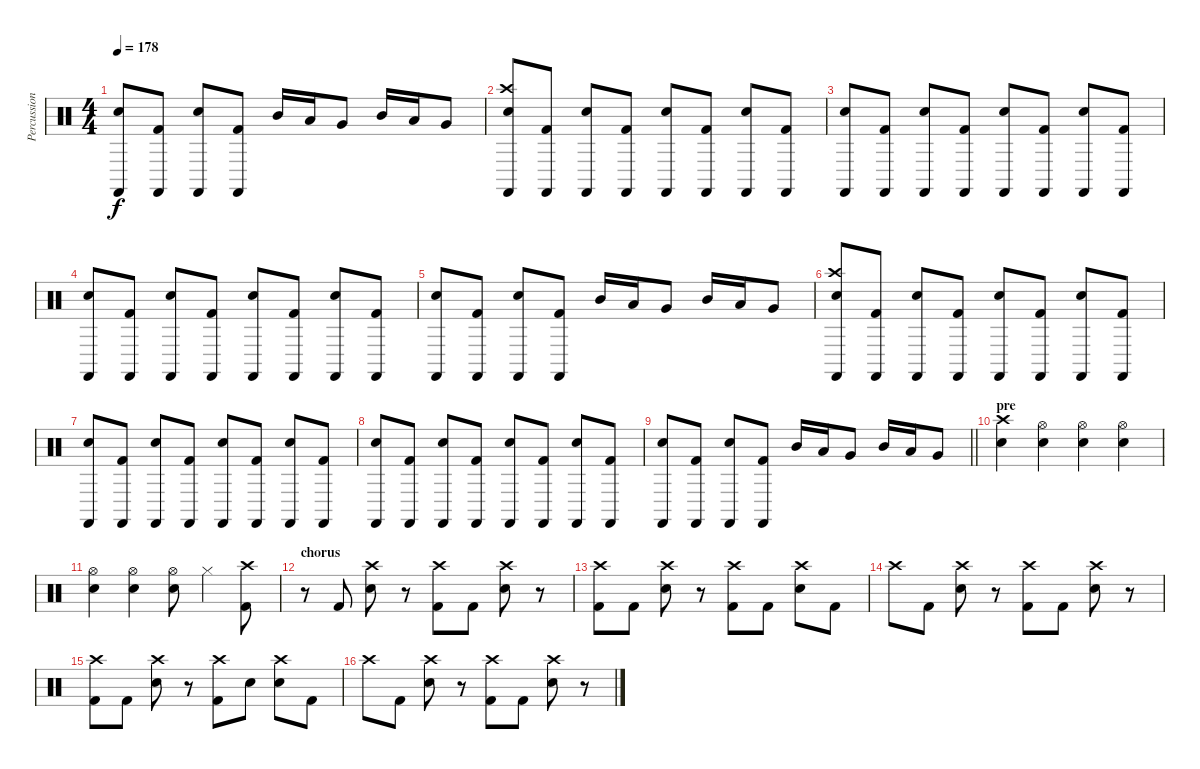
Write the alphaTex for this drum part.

\track ("Percussion" "Percussion") {instrument percussion}
\staff {score}
\articulation defaults
\ts (4 4)
\tempo 178
\clef neutral
\ks c
("Castanets (hit)" "Electric Snare (hit)").8{dy f} ("Castanets (hit)" "Kick (hit) 2").8 ("Castanets (hit)" "Electric Snare (hit)").8 ("Castanets (hit)" "Kick (hit) 2").8 "Mid Tom (hit)".16 "Low Tom (hit)".16 "Very Low Tom (hit)".8 "Mid Tom (hit)".16 "Low Tom (hit)".16 "Very Low Tom (hit)".8 |
("Crash high (hit)" "Castanets (hit)" "Electric Snare (hit)").8 ("Castanets (hit)" "Kick (hit) 2").8 ("Castanets (hit)" "Electric Snare (hit)").8 ("Castanets (hit)" "Kick (hit) 2").8 ("Castanets (hit)" "Electric Snare (hit)").8 ("Castanets (hit)" "Kick (hit) 2").8 ("Castanets (hit)" "Electric Snare (hit)").8 ("Castanets (hit)" "Kick (hit) 2").8 |
("Castanets (hit)" "Electric Snare (hit)").8 ("Castanets (hit)" "Kick (hit) 2").8 ("Castanets (hit)" "Electric Snare (hit)").8 ("Castanets (hit)" "Kick (hit) 2").8 ("Castanets (hit)" "Electric Snare (hit)").8 ("Castanets (hit)" "Kick (hit) 2").8 ("Castanets (hit)" "Electric Snare (hit)").8 ("Castanets (hit)" "Kick (hit) 2").8 |
("Castanets (hit)" "Electric Snare (hit)").8 ("Castanets (hit)" "Kick (hit) 2").8 ("Castanets (hit)" "Electric Snare (hit)").8 ("Castanets (hit)" "Kick (hit) 2").8 ("Castanets (hit)" "Electric Snare (hit)").8 ("Castanets (hit)" "Kick (hit) 2").8 ("Castanets (hit)" "Electric Snare (hit)").8 ("Castanets (hit)" "Kick (hit) 2").8 |
("Castanets (hit)" "Electric Snare (hit)").8 ("Castanets (hit)" "Kick (hit) 2").8 ("Castanets (hit)" "Electric Snare (hit)").8 ("Castanets (hit)" "Kick (hit) 2").8 "Mid Tom (hit)".16 "Low Tom (hit)".16 "Very Low Tom (hit)".8 "Mid Tom (hit)".16 "Low Tom (hit)".16 "Very Low Tom (hit)".8 |
("Crash high (hit)" "Castanets (hit)" "Electric Snare (hit)").8 ("Castanets (hit)" "Kick (hit) 2").8 ("Castanets (hit)" "Electric Snare (hit)").8 ("Castanets (hit)" "Kick (hit) 2").8 ("Castanets (hit)" "Electric Snare (hit)").8 ("Castanets (hit)" "Kick (hit) 2").8 ("Castanets (hit)" "Electric Snare (hit)").8 ("Castanets (hit)" "Kick (hit) 2").8 |
("Castanets (hit)" "Electric Snare (hit)").8 ("Castanets (hit)" "Kick (hit) 2").8 ("Castanets (hit)" "Electric Snare (hit)").8 ("Castanets (hit)" "Kick (hit) 2").8 ("Castanets (hit)" "Electric Snare (hit)").8 ("Castanets (hit)" "Kick (hit) 2").8 ("Castanets (hit)" "Electric Snare (hit)").8 ("Castanets (hit)" "Kick (hit) 2").8 |
("Castanets (hit)" "Electric Snare (hit)").8 ("Castanets (hit)" "Kick (hit) 2").8 ("Castanets (hit)" "Electric Snare (hit)").8 ("Castanets (hit)" "Kick (hit) 2").8 ("Castanets (hit)" "Electric Snare (hit)").8 ("Castanets (hit)" "Kick (hit) 2").8 ("Castanets (hit)" "Electric Snare (hit)").8 ("Castanets (hit)" "Kick (hit) 2").8 |
\barLineRight lightlight
("Castanets (hit)" "Electric Snare (hit)").8 ("Castanets (hit)" "Kick (hit) 2").8 ("Castanets (hit)" "Electric Snare (hit)").8 ("Castanets (hit)" "Kick (hit) 2").8 "Mid Tom (hit)".16 "Low Tom (hit)".16 "Very Low Tom (hit)".8 "Mid Tom (hit)".16 "Low Tom (hit)".16 "Very Low Tom (hit)".8 |
\section ("" "pre")
("Crash high (hit)" "Electric Snare (hit)").4 ("Hi-Hat (open)" "Electric Snare (hit)").4 ("Hi-Hat (open)" "Electric Snare (hit)").4 ("Hi-Hat (open)" "Electric Snare (hit)").4 |
("Hi-Hat (open)" "Electric Snare (hit)").4 ("Hi-Hat (open)" "Electric Snare (hit)").4 ("Hi-Hat (open)" "Electric Snare (hit)").8 "Hi-Hat (closed)".4 ("Crash high (hit)" "Kick (hit) 2").8 |
\section ("" "chorus")
r.8 "Kick (hit) 2".8 ("Crash high (hit)" "Electric Snare (hit)").8 r.8 ("Crash high (hit)" "Kick (hit) 2").8 "Kick (hit) 2".8 ("Crash high (hit)" "Electric Snare (hit)").8 r.8 |
("Crash high (hit)" "Kick (hit) 2").8 "Kick (hit) 2".8 ("Crash high (hit)" "Electric Snare (hit)").8 r.8 ("Crash high (hit)" "Kick (hit) 2").8 "Kick (hit) 2".8 ("Crash high (hit)" "Electric Snare (hit)").8 "Kick (hit) 2".8 |
"Crash high (hit)".8 "Kick (hit) 2".8 ("Crash high (hit)" "Electric Snare (hit)").8 r.8 ("Crash high (hit)" "Kick (hit) 2").8 "Kick (hit) 2".8 ("Crash high (hit)" "Electric Snare (hit)").8 r.8 |
("Crash high (hit)" "Kick (hit) 2").8 "Kick (hit) 2".8 ("Crash high (hit)" "Electric Snare (hit)").8 r.8 ("Crash high (hit)" "Kick (hit) 2").8 "Electric Snare (hit)".8 ("Crash high (hit)" "Electric Snare (hit)").8 "Kick (hit) 2".8 |
"Crash high (hit)".8 "Kick (hit) 2".8 ("Crash high (hit)" "Electric Snare (hit)").8 r.8 ("Crash high (hit)" "Kick (hit) 2").8 "Kick (hit) 2".8 ("Crash high (hit)" "Electric Snare (hit)").8 r.8
